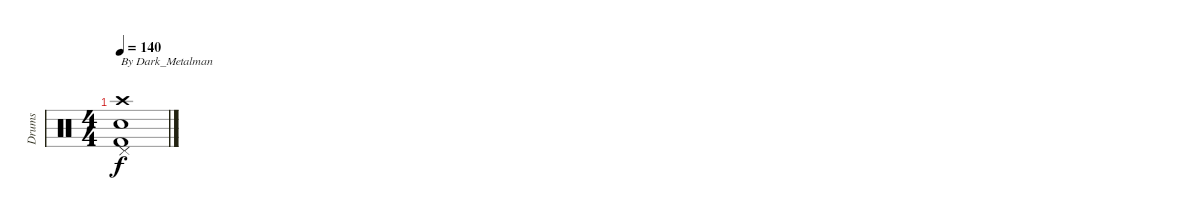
\track ("Drums" "Drums") {instrument percussion}
\staff {score}
\articulation defaults
\ts (4 4)
\tempo 140
\clef neutral
\ks c
("Pedal Hi-Hat (hit)" "Crash high (hit)" "Electric Snare (hit)" "Kick (hit) 2").1{txt "By Dark_Metalman" dy f}
